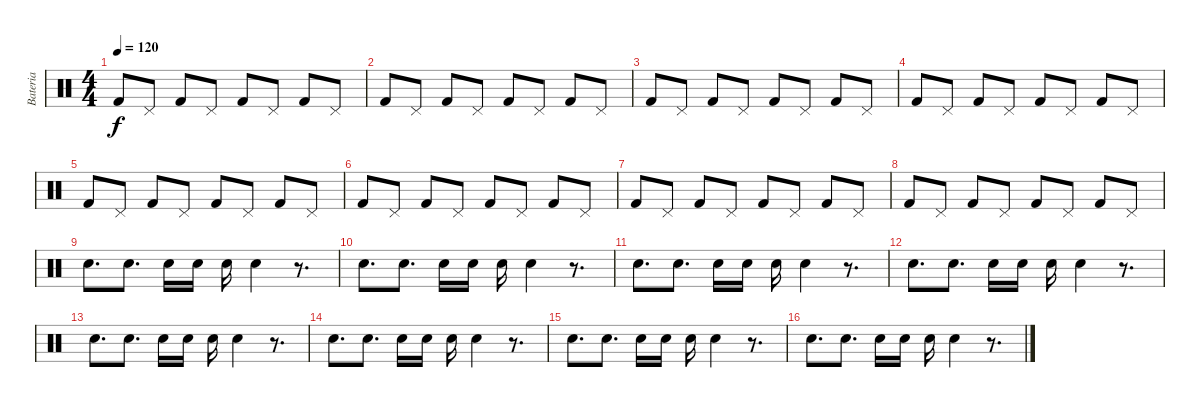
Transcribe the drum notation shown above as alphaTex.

\track ("Bateria" "Bateria") {instrument percussion}
\staff {score}
\articulation defaults
\ts (4 4)
\tempo 120
\clef neutral
\ks c "Kick (hit) 2".8{dy f} "Pedal Hi-Hat (hit)".8 "Kick (hit) 2".8 "Pedal Hi-Hat (hit)".8 "Kick (hit) 2".8 "Pedal Hi-Hat (hit)".8 "Kick (hit) 2".8 "Pedal Hi-Hat (hit)".8
|
"Kick (hit) 2".8 "Pedal Hi-Hat (hit)".8 "Kick (hit) 2".8 "Pedal Hi-Hat (hit)".8 "Kick (hit) 2".8 "Pedal Hi-Hat (hit)".8 "Kick (hit) 2".8 "Pedal Hi-Hat (hit)".8 |
"Kick (hit) 2".8 "Pedal Hi-Hat (hit)".8 "Kick (hit) 2".8 "Pedal Hi-Hat (hit)".8 "Kick (hit) 2".8 "Pedal Hi-Hat (hit)".8 "Kick (hit) 2".8 "Pedal Hi-Hat (hit)".8 |
"Kick (hit) 2".8 "Pedal Hi-Hat (hit)".8 "Kick (hit) 2".8 "Pedal Hi-Hat (hit)".8 "Kick (hit) 2".8 "Pedal Hi-Hat (hit)".8 "Kick (hit) 2".8 "Pedal Hi-Hat (hit)".8 |
"Kick (hit) 2".8 "Pedal Hi-Hat (hit)".8 "Kick (hit) 2".8 "Pedal Hi-Hat (hit)".8 "Kick (hit) 2".8 "Pedal Hi-Hat (hit)".8 "Kick (hit) 2".8 "Pedal Hi-Hat (hit)".8 |
"Kick (hit) 2".8 "Pedal Hi-Hat (hit)".8 "Kick (hit) 2".8 "Pedal Hi-Hat (hit)".8 "Kick (hit) 2".8 "Pedal Hi-Hat (hit)".8 "Kick (hit) 2".8 "Pedal Hi-Hat (hit)".8 |
"Kick (hit) 2".8 "Pedal Hi-Hat (hit)".8 "Kick (hit) 2".8 "Pedal Hi-Hat (hit)".8 "Kick (hit) 2".8 "Pedal Hi-Hat (hit)".8 "Kick (hit) 2".8 "Pedal Hi-Hat (hit)".8 |
"Kick (hit) 2".8 "Pedal Hi-Hat (hit)".8 "Kick (hit) 2".8 "Pedal Hi-Hat (hit)".8 "Kick (hit) 2".8 "Pedal Hi-Hat (hit)".8 "Kick (hit) 2".8 "Pedal Hi-Hat (hit)".8 |
"Electric Snare (hit)".8{d} "Electric Snare (hit)".8{d} "Electric Snare (hit)".16 "Electric Snare (hit)".16 "Electric Snare (hit)".16 "Electric Snare (hit)".4 r.8{d} |
"Electric Snare (hit)".8{d} "Electric Snare (hit)".8{d} "Electric Snare (hit)".16 "Electric Snare (hit)".16 "Electric Snare (hit)".16 "Electric Snare (hit)".4 r.8{d} |
"Electric Snare (hit)".8{d} "Electric Snare (hit)".8{d} "Electric Snare (hit)".16 "Electric Snare (hit)".16 "Electric Snare (hit)".16 "Electric Snare (hit)".4 r.8{d} |
"Electric Snare (hit)".8{d} "Electric Snare (hit)".8{d} "Electric Snare (hit)".16 "Electric Snare (hit)".16 "Electric Snare (hit)".16 "Electric Snare (hit)".4 r.8{d} |
"Electric Snare (hit)".8{d} "Electric Snare (hit)".8{d} "Electric Snare (hit)".16 "Electric Snare (hit)".16 "Electric Snare (hit)".16 "Electric Snare (hit)".4 r.8{d} |
"Electric Snare (hit)".8{d} "Electric Snare (hit)".8{d} "Electric Snare (hit)".16 "Electric Snare (hit)".16 "Electric Snare (hit)".16 "Electric Snare (hit)".4 r.8{d} |
"Electric Snare (hit)".8{d} "Electric Snare (hit)".8{d} "Electric Snare (hit)".16 "Electric Snare (hit)".16 "Electric Snare (hit)".16 "Electric Snare (hit)".4 r.8{d} |
"Electric Snare (hit)".8{d} "Electric Snare (hit)".8{d} "Electric Snare (hit)".16 "Electric Snare (hit)".16 "Electric Snare (hit)".16 "Electric Snare (hit)".4 r.8{d}
